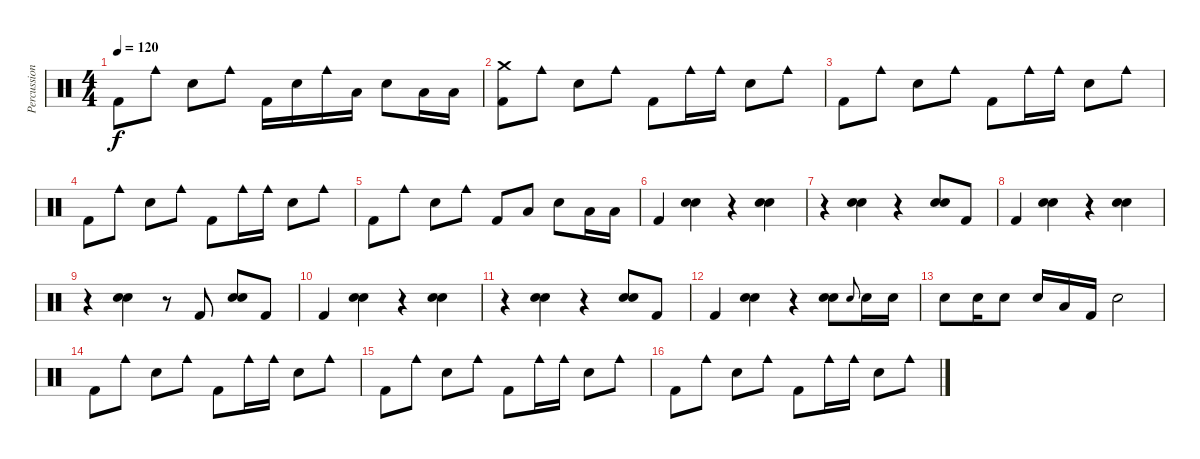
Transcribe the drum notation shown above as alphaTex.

\track ("Percussion" "Percussion") {instrument percussion}
\staff {score}
\articulation defaults
\ts (4 4)
\tempo 120
\clef neutral
\ks c "Kick (hit) 2".8{dy f} "Cowbell medium (hit)".8 "Electric Snare (hit)".8 "Cowbell medium (hit)".8 "Kick (hit) 2".16 "Electric Snare (hit)".16 "Cowbell medium (hit)".16 "Low Floor Tom (hit)".16 "Electric Snare (hit)".8 "Low Floor Tom (hit)".16 "Low Floor Tom (hit)".16
|
("Kick (hit) 2" "Crash medium (hit)").8 "Cowbell medium (hit)".8 "Electric Snare (hit)".8 "Cowbell medium (hit)".8 "Kick (hit) 2".8 "Cowbell medium (hit)".16 "Cowbell medium (hit)".16 "Electric Snare (hit)".8 "Cowbell medium (hit)".8 |
"Kick (hit) 2".8 "Cowbell medium (hit)".8 "Electric Snare (hit)".8 "Cowbell medium (hit)".8 "Kick (hit) 2".8 "Cowbell medium (hit)".16 "Cowbell medium (hit)".16 "Electric Snare (hit)".8 "Cowbell medium (hit)".8 |
"Kick (hit) 2".8 "Cowbell medium (hit)".8 "Electric Snare (hit)".8 "Cowbell medium (hit)".8 "Kick (hit) 2".8 "Cowbell medium (hit)".16 "Cowbell medium (hit)".16 "Electric Snare (hit)".8 "Cowbell medium (hit)".8 |
"Kick (hit) 2".8 "Cowbell medium (hit)".8 "Electric Snare (hit)".8 "Cowbell medium (hit)".8 "Kick (hit) 2".8 "Low Floor Tom (hit)".8 "Electric Snare (hit)".8 "Low Floor Tom (hit)".16 "Low Floor Tom (hit)".16 |
"Kick (hit) 2".4 ("Snare (hit) 2" "Hand Clap (hit)").4 r.4 ("Snare (hit) 2" "Hand Clap (hit)").4 |
r.4 ("Snare (hit) 2" "Hand Clap (hit)").4 r.4 ("Snare (hit) 2" "Hand Clap (hit)").8 "Kick (hit) 2".8 |
"Kick (hit) 2".4 ("Snare (hit) 2" "Hand Clap (hit)").4 r.4 ("Snare (hit) 2" "Hand Clap (hit)").4 |
r.4 ("Snare (hit) 2" "Hand Clap (hit)").4 r.8 "Kick (hit) 2".8 ("Snare (hit) 2" "Hand Clap (hit)").8 "Kick (hit) 2".8 |
"Kick (hit) 2".4 ("Snare (hit) 2" "Hand Clap (hit)").4 r.4 ("Snare (hit) 2" "Hand Clap (hit)").4 |
r.4 ("Snare (hit) 2" "Hand Clap (hit)").4 r.4 ("Snare (hit) 2" "Hand Clap (hit)").8 "Kick (hit) 2".8 |
"Kick (hit) 2".4 ("Snare (hit) 2" "Hand Clap (hit)").4 r.4 ("Snare (hit) 2" "Hand Clap (hit)").8 "Snare (hit) 2".8{gr onbeat} "Snare (hit) 2".16 "Snare (hit) 2".16 |
"Snare (hit) 2".8 "Snare (hit) 2".16 "Snare (hit) 2".8 "Snare (hit) 2".16 "Low Floor Tom (hit)".16 "Kick (hit) 2".16 "Snare (hit) 2".2 |
"Kick (hit) 2".8 "Cowbell medium (hit)".8 "Electric Snare (hit)".8 "Cowbell medium (hit)".8 "Kick (hit) 2".8 "Cowbell medium (hit)".16 "Cowbell medium (hit)".16 "Electric Snare (hit)".8 "Cowbell medium (hit)".8 |
"Kick (hit) 2".8 "Cowbell medium (hit)".8 "Electric Snare (hit)".8 "Cowbell medium (hit)".8 "Kick (hit) 2".8 "Cowbell medium (hit)".16 "Cowbell medium (hit)".16 "Electric Snare (hit)".8 "Cowbell medium (hit)".8 |
"Kick (hit) 2".8 "Cowbell medium (hit)".8 "Electric Snare (hit)".8 "Cowbell medium (hit)".8 "Kick (hit) 2".8 "Cowbell medium (hit)".16 "Cowbell medium (hit)".16 "Electric Snare (hit)".8 "Cowbell medium (hit)".8
